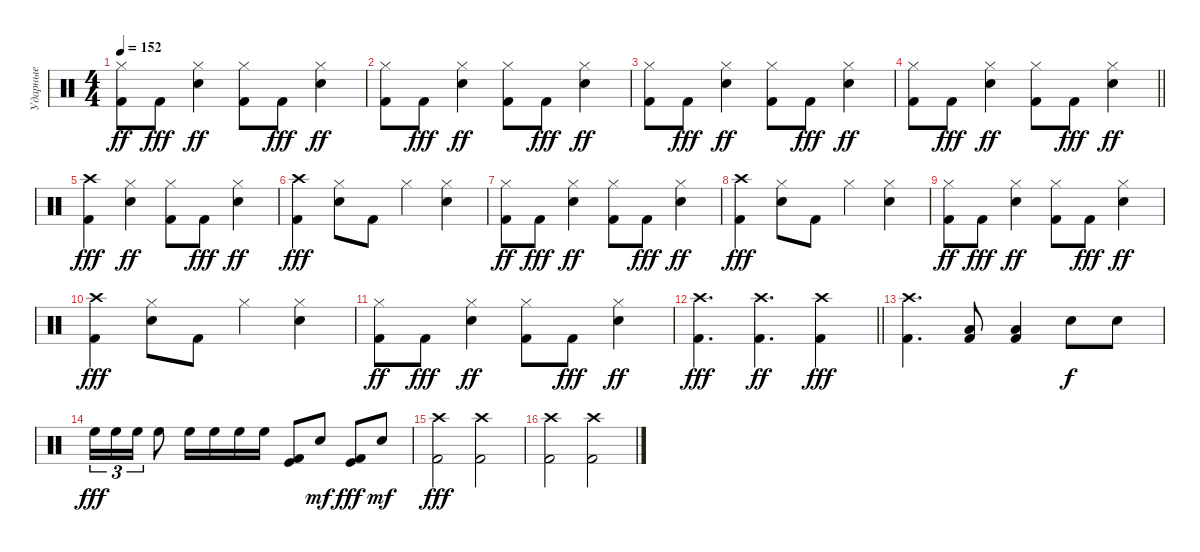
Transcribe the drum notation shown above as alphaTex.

\track ("Ударные" "Ударные") {instrument percussion}
\staff
\articulation defaults
\ts (4 4)
\tempo 152
\clef neutral
\ks c
("Kick (hit) 2" "Hi-Hat (closed)").8{dy ff} "Kick (hit) 2".8{dy fff} ("Snare (hit) 2" "Hi-Hat (closed)").4{dy ff} ("Kick (hit) 2" "Hi-Hat (closed)").8 "Kick (hit) 2".8{dy fff} ("Snare (hit) 2" "Hi-Hat (closed)").4{dy ff} |
("Kick (hit) 2" "Hi-Hat (closed)").8 "Kick (hit) 2".8{dy fff} ("Snare (hit) 2" "Hi-Hat (closed)").4{dy ff} ("Kick (hit) 2" "Hi-Hat (closed)").8 "Kick (hit) 2".8{dy fff} ("Snare (hit) 2" "Hi-Hat (closed)").4{dy ff} |
("Kick (hit) 2" "Hi-Hat (closed)").8 "Kick (hit) 2".8{dy fff} ("Snare (hit) 2" "Hi-Hat (closed)").4{dy ff} ("Kick (hit) 2" "Hi-Hat (closed)").8 "Kick (hit) 2".8{dy fff} ("Snare (hit) 2" "Hi-Hat (closed)").4{dy ff} |
\barLineRight lightlight
("Kick (hit) 2" "Hi-Hat (closed)").8 "Kick (hit) 2".8{dy fff} ("Snare (hit) 2" "Hi-Hat (closed)").4{dy ff} ("Kick (hit) 2" "Hi-Hat (closed)").8 "Kick (hit) 2".8{dy fff} ("Snare (hit) 2" "Hi-Hat (closed)").4{dy ff} |
("Kick (hit) 2" "Crash high (hit)").4{dy fff} ("Snare (hit) 2" "Hi-Hat (closed)").4{dy ff} ("Kick (hit) 2" "Hi-Hat (closed)").8 "Kick (hit) 2".8{dy fff} ("Snare (hit) 2" "Hi-Hat (closed)").4{dy ff} |
("Kick (hit) 2" "Crash high (hit)").4{dy fff} ("Snare (hit) 2" "Hi-Hat (closed)").8 "Kick (hit) 2".8 "Hi-Hat (closed)".4 ("Snare (hit) 2" "Hi-Hat (closed)").4 |
("Kick (hit) 2" "Hi-Hat (closed)").8{dy ff} "Kick (hit) 2".8{dy fff} ("Snare (hit) 2" "Hi-Hat (closed)").4{dy ff} ("Kick (hit) 2" "Hi-Hat (closed)").8 "Kick (hit) 2".8{dy fff} ("Snare (hit) 2" "Hi-Hat (closed)").4{dy ff} |
("Kick (hit) 2" "Crash high (hit)").4{dy fff} ("Snare (hit) 2" "Hi-Hat (closed)").8 "Kick (hit) 2".8 "Hi-Hat (closed)".4 ("Snare (hit) 2" "Hi-Hat (closed)").4 |
("Kick (hit) 2" "Hi-Hat (closed)").8{dy ff} "Kick (hit) 2".8{dy fff} ("Snare (hit) 2" "Hi-Hat (closed)").4{dy ff} ("Kick (hit) 2" "Hi-Hat (closed)").8 "Kick (hit) 2".8{dy fff} ("Snare (hit) 2" "Hi-Hat (closed)").4{dy ff} |
("Kick (hit) 2" "Crash high (hit)").4{dy fff} ("Snare (hit) 2" "Hi-Hat (closed)").8 "Kick (hit) 2".8 "Hi-Hat (closed)".4 ("Snare (hit) 2" "Hi-Hat (closed)").4 |
("Kick (hit) 2" "Hi-Hat (closed)").8{dy ff} "Kick (hit) 2".8{dy fff} ("Snare (hit) 2" "Hi-Hat (closed)").4{dy ff} ("Kick (hit) 2" "Hi-Hat (closed)").8 "Kick (hit) 2".8{dy fff} ("Snare (hit) 2" "Hi-Hat (closed)").4{dy ff} |
\barLineRight lightlight
("Kick (hit) 2" "Crash high (hit)").4{d dy fff} ("Kick (hit) 2" "Crash high (hit)").4{d dy ff} ("Kick (hit) 2" "Crash high (hit)").4{dy fff} |
("Kick (hit) 2" "Crash high (hit)").4{d} ("Kick (hit) 2" "Low Tom (hit)").8 ("Kick (hit) 2" "Low Tom (hit)").4 "Snare (hit) 2".8{dy f} "Snare (hit) 2".8 |
"High Floor Tom (hit)".16{tu (3 2) dy fff} "High Floor Tom (hit)".16{tu (3 2)} "High Floor Tom (hit)".16{tu (3 2)} "High Floor Tom (hit)".8 "High Floor Tom (hit)".16 "High Floor Tom (hit)".16 "High Floor Tom (hit)".16 "High Floor Tom (hit)".16 ("Kick (hit) 2" "Kick (hit)").8 "Electric Snare (hit)".8{dy mf} ("Kick (hit) 2" "Kick (hit)").8{dy fff} "Electric Snare (hit)".8{dy mf} |
("Kick (hit) 2" "Crash high (hit)").2{dy fff} ("Kick (hit) 2" "Crash high (hit)").2 |
("Kick (hit) 2" "Crash high (hit)").2 ("Kick (hit) 2" "Crash high (hit)").2
